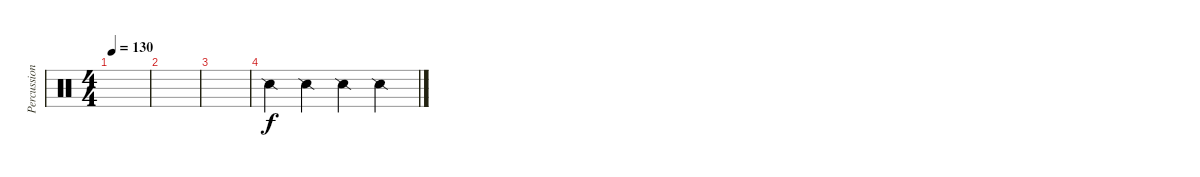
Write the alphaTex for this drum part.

\track ("Percussion" "Percussion") {instrument percussion}
\staff {score}
\articulation defaults
\ts (4 4)
\tempo 130
\clef neutral
\ks c
|
|
|
"Snare (side stick) 2".4 "Snare (side stick) 2".4 "Snare (side stick) 2".4 "Snare (side stick) 2".4
